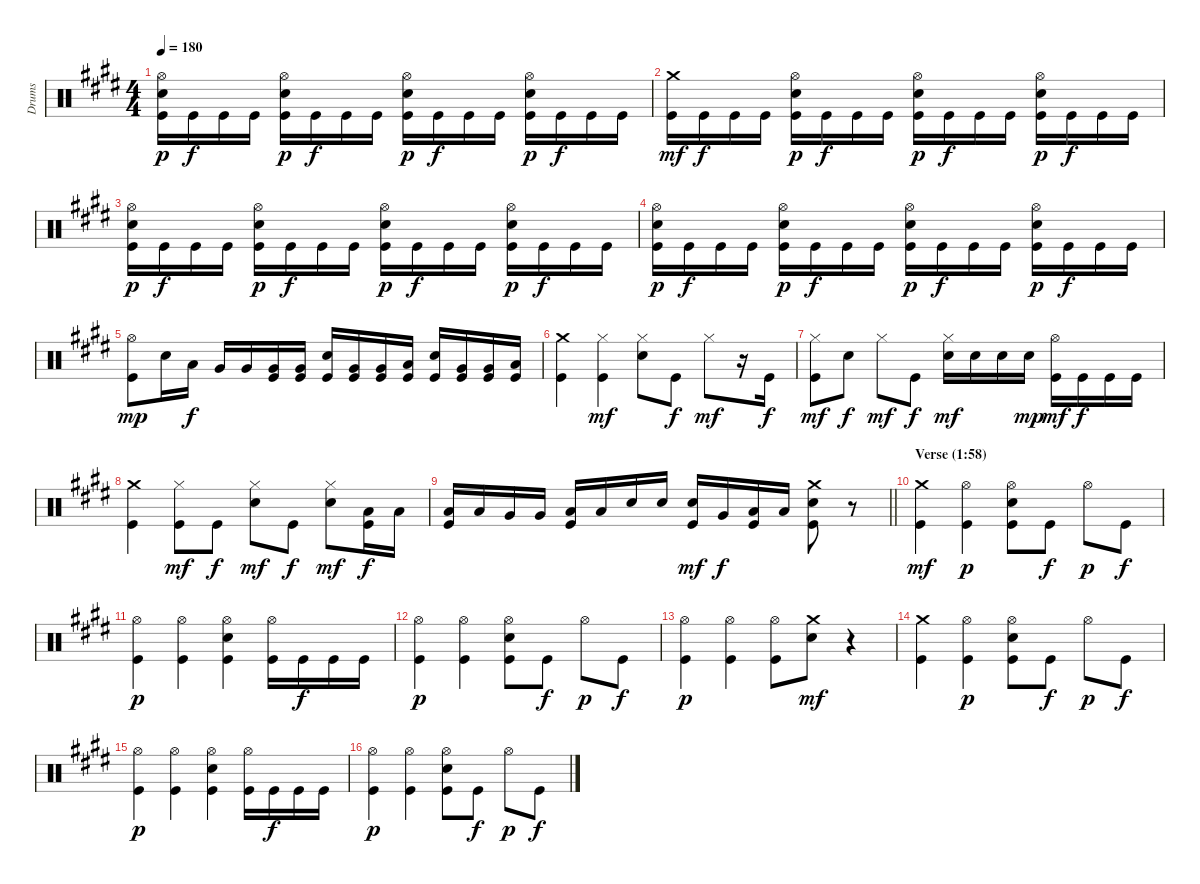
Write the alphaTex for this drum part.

\track ("Drums" "Drums") {instrument percussion}
\staff {score}
\articulation defaults
\ts (4 4)
\tempo 180
\clef neutral
\ks c#minor
("Hi-Hat (open)" "Snare (hit) 2" "Kick (hit)").16{dy p} "Kick (hit)".16{dy f} "Kick (hit)".16 "Kick (hit)".16 ("Hi-Hat (open)" "Snare (hit) 2" "Kick (hit)").16{dy p} "Kick (hit)".16{dy f} "Kick (hit)".16 "Kick (hit)".16 ("Hi-Hat (open)" "Snare (hit) 2" "Kick (hit)").16{dy p} "Kick (hit)".16{dy f} "Kick (hit)".16 "Kick (hit)".16 ("Hi-Hat (open)" "Snare (hit) 2" "Kick (hit)").16{dy p} "Kick (hit)".16{dy f} "Kick (hit)".16 "Kick (hit)".16 |
("Crash medium (hit)" "Kick (hit)").16{dy mf} "Kick (hit)".16{dy f} "Kick (hit)".16 "Kick (hit)".16 ("Hi-Hat (open)" "Snare (hit) 2" "Kick (hit)").16{dy p} "Kick (hit)".16{dy f} "Kick (hit)".16 "Kick (hit)".16 ("Hi-Hat (open)" "Snare (hit) 2" "Kick (hit)").16{dy p} "Kick (hit)".16{dy f} "Kick (hit)".16 "Kick (hit)".16 ("Hi-Hat (open)" "Snare (hit) 2" "Kick (hit)").16{dy p} "Kick (hit)".16{dy f} "Kick (hit)".16 "Kick (hit)".16 |
("Hi-Hat (open)" "Snare (hit) 2" "Kick (hit)").16{dy p} "Kick (hit)".16{dy f} "Kick (hit)".16 "Kick (hit)".16 ("Hi-Hat (open)" "Snare (hit) 2" "Kick (hit)").16{dy p} "Kick (hit)".16{dy f} "Kick (hit)".16 "Kick (hit)".16 ("Hi-Hat (open)" "Snare (hit) 2" "Kick (hit)").16{dy p} "Kick (hit)".16{dy f} "Kick (hit)".16 "Kick (hit)".16 ("Hi-Hat (open)" "Snare (hit) 2" "Kick (hit)").16{dy p} "Kick (hit)".16{dy f} "Kick (hit)".16 "Kick (hit)".16 |
("Hi-Hat (open)" "Snare (hit) 2" "Kick (hit)").16{dy p} "Kick (hit)".16{dy f} "Kick (hit)".16 "Kick (hit)".16 ("Hi-Hat (open)" "Snare (hit) 2" "Kick (hit)").16{dy p} "Kick (hit)".16{dy f} "Kick (hit)".16 "Kick (hit)".16 ("Hi-Hat (open)" "Snare (hit) 2" "Kick (hit)").16{dy p} "Kick (hit)".16{dy f} "Kick (hit)".16 "Kick (hit)".16 ("Hi-Hat (open)" "Snare (hit) 2" "Kick (hit)").16{dy p} "Kick (hit)".16{dy f} "Kick (hit)".16 "Kick (hit)".16 |
("Hi-Hat (open)" "Kick (hit)").8{dy mp} "Snare (hit) 2".16 "Low Tom (hit)".16{dy f} "Very Low Tom (hit)".16 "Very Low Tom (hit)".16 ("Very Low Tom (hit)" "Kick (hit)").16 ("Very Low Tom (hit)" "Kick (hit)").16 ("Snare (hit) 2" "Kick (hit)").16 ("Very Low Tom (hit)" "Kick (hit)").16 ("Very Low Tom (hit)" "Kick (hit)").16 ("Low Floor Tom (hit)" "Kick (hit)").16 ("Snare (hit) 2" "Kick (hit)").16 ("Very Low Tom (hit)" "Kick (hit)").16 ("Very Low Tom (hit)" "Kick (hit)").16 ("Low Floor Tom (hit)" "Kick (hit)").16 |
("Crash medium (hit)" "Kick (hit)").4 ("Hi-Hat (closed)" "Kick (hit)").4{dy mf} ("Hi-Hat (closed)" "Snare (hit) 2").8 "Kick (hit)".8{dy f} "Hi-Hat (closed)".8{dy mf} r.16 "Kick (hit)".16{dy f} |
("Hi-Hat (closed)" "Kick (hit)").8{dy mf} "Snare (hit) 2".8{dy f} "Hi-Hat (closed)".8{dy mf} "Kick (hit)".8{dy f} ("Hi-Hat (closed)" "Snare (hit) 2").16{dy mf} "Snare (hit) 2".16 "Snare (hit) 2".16 "Snare (hit) 2".16{dy mp} ("Hi-Hat (open)" "Kick (hit)").16{dy mf} "Kick (hit)".16{dy f} "Kick (hit)".16 "Kick (hit)".16 |
("Crash medium (hit)" "Kick (hit)").4 ("Hi-Hat (closed)" "Kick (hit)").8{dy mf} "Kick (hit)".8{dy f} ("Hi-Hat (closed)" "Snare (hit) 2").8{dy mf} "Kick (hit)".8{dy f} ("Hi-Hat (closed)" "Snare (hit) 2").8{dy mf} ("Low Tom (hit)" "Kick (hit)").16{dy f} "Low Tom (hit)".16 |
\barLineRight lightlight
("Low Floor Tom (hit)" "Kick (hit)").16 "Low Floor Tom (hit)".16 "Very Low Tom (hit)".16 "Very Low Tom (hit)".16 ("Low Tom (hit)" "Kick (hit)").16 "Low Tom (hit)".16 "Snare (hit) 2".16 "Snare (hit) 2".16 ("Snare (hit) 2" "Kick (hit)").16{dy mf} "Very Low Tom (hit)".16{dy f} ("Low Floor Tom (hit)" "Kick (hit)").16 "Low Floor Tom (hit)".16 ("Crash medium (hit)" "Snare (hit) 2" "Kick (hit)").8 r.8 |
\section ("" "Verse (1:58)")
("Crash medium (hit)" "Kick (hit)").4{dy mf} ("Hi-Hat (open)" "Kick (hit)").4{dy p} ("Hi-Hat (open)" "Snare (hit) 2" "Kick (hit)").8 "Kick (hit)".8{dy f} "Hi-Hat (open)".8{dy p} "Kick (hit)".8{dy f} |
("Hi-Hat (open)" "Kick (hit)").4{dy p} ("Hi-Hat (open)" "Kick (hit)").4 ("Hi-Hat (open)" "Snare (hit) 2" "Kick (hit)").4 ("Hi-Hat (open)" "Kick (hit)").16 "Kick (hit)".16{dy f} "Kick (hit)".16 "Kick (hit)".16 |
("Hi-Hat (open)" "Kick (hit)").4{dy p} ("Hi-Hat (open)" "Kick (hit)").4 ("Hi-Hat (open)" "Snare (hit) 2" "Kick (hit)").8 "Kick (hit)".8{dy f} "Hi-Hat (open)".8{dy p} "Kick (hit)".8{dy f} |
("Hi-Hat (open)" "Kick (hit)").4{dy p} ("Hi-Hat (open)" "Kick (hit)").4 ("Hi-Hat (open)" "Kick (hit)").8 ("Crash medium (hit)" "Snare (hit) 2").8{dy mf} r.4 |
("Crash medium (hit)" "Kick (hit)").4 ("Hi-Hat (open)" "Kick (hit)").4{dy p} ("Hi-Hat (open)" "Snare (hit) 2" "Kick (hit)").8 "Kick (hit)".8{dy f} "Hi-Hat (open)".8{dy p} "Kick (hit)".8{dy f} |
("Hi-Hat (open)" "Kick (hit)").4{dy p} ("Hi-Hat (open)" "Kick (hit)").4 ("Hi-Hat (open)" "Snare (hit) 2" "Kick (hit)").4 ("Hi-Hat (open)" "Kick (hit)").16 "Kick (hit)".16{dy f} "Kick (hit)".16 "Kick (hit)".16 |
("Hi-Hat (open)" "Kick (hit)").4{dy p} ("Hi-Hat (open)" "Kick (hit)").4 ("Hi-Hat (open)" "Snare (hit) 2" "Kick (hit)").8 "Kick (hit)".8{dy f} "Hi-Hat (open)".8{dy p} "Kick (hit)".8{dy f}
